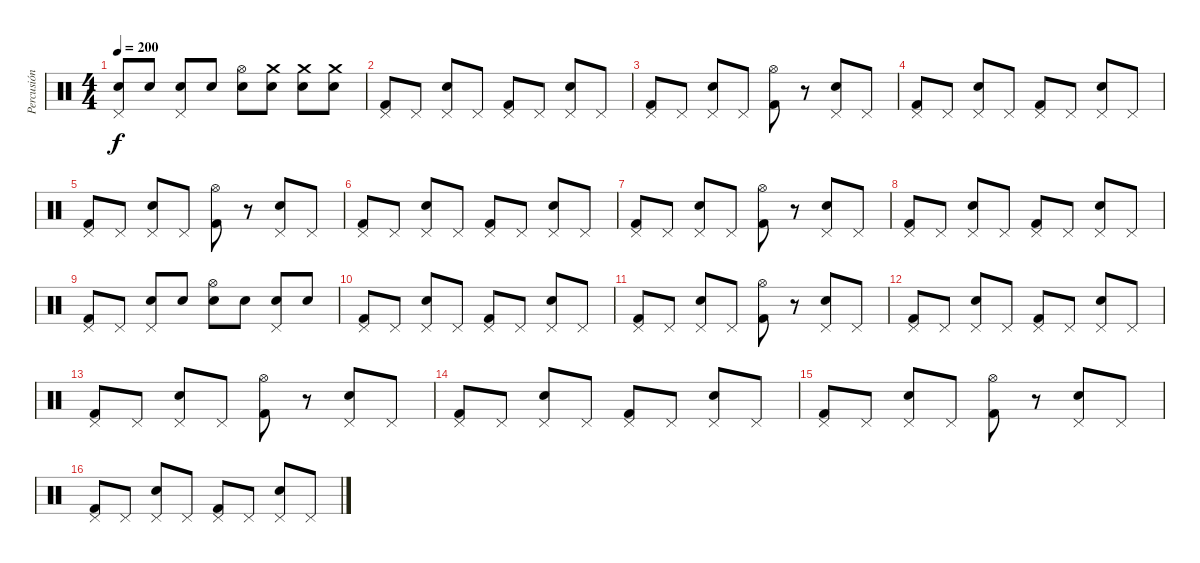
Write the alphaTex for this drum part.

\track ("Percusión" "Percusión") {instrument percussion}
\staff {score}
\articulation defaults
\ts (4 4)
\tempo 200
\clef neutral
\ks c
("Electric Snare (hit)" "Pedal Hi-Hat (hit)").8{dy f} "Electric Snare (hit)".8 ("Electric Snare (hit)" "Pedal Hi-Hat (hit)").8 "Electric Snare (hit)".8 ("Electric Snare (hit)" "Hi-Hat (open)").8 ("Electric Snare (hit)" "Crash medium (hit)").8 ("Electric Snare (hit)" "Crash medium (hit)").8 ("Electric Snare (hit)" "Crash medium (hit)").8 |
("Kick (hit) 2" "Pedal Hi-Hat (hit)").8 "Pedal Hi-Hat (hit)".8 ("Electric Snare (hit)" "Pedal Hi-Hat (hit)").8 "Pedal Hi-Hat (hit)".8 ("Kick (hit) 2" "Pedal Hi-Hat (hit)").8 "Pedal Hi-Hat (hit)".8 ("Electric Snare (hit)" "Pedal Hi-Hat (hit)").8 "Pedal Hi-Hat (hit)".8 |
("Kick (hit) 2" "Pedal Hi-Hat (hit)").8 "Pedal Hi-Hat (hit)".8 ("Electric Snare (hit)" "Pedal Hi-Hat (hit)").8 "Pedal Hi-Hat (hit)".8 ("Kick (hit) 2" "Hi-Hat (open)").8 r.8 ("Electric Snare (hit)" "Pedal Hi-Hat (hit)").8 "Pedal Hi-Hat (hit)".8 |
("Kick (hit) 2" "Pedal Hi-Hat (hit)").8 "Pedal Hi-Hat (hit)".8 ("Electric Snare (hit)" "Pedal Hi-Hat (hit)").8 "Pedal Hi-Hat (hit)".8 ("Kick (hit) 2" "Pedal Hi-Hat (hit)").8 "Pedal Hi-Hat (hit)".8 ("Electric Snare (hit)" "Pedal Hi-Hat (hit)").8 "Pedal Hi-Hat (hit)".8 |
("Kick (hit) 2" "Pedal Hi-Hat (hit)").8 "Pedal Hi-Hat (hit)".8 ("Electric Snare (hit)" "Pedal Hi-Hat (hit)").8 "Pedal Hi-Hat (hit)".8 ("Kick (hit) 2" "Hi-Hat (open)").8 r.8 ("Electric Snare (hit)" "Pedal Hi-Hat (hit)").8 "Pedal Hi-Hat (hit)".8 |
("Kick (hit) 2" "Pedal Hi-Hat (hit)").8 "Pedal Hi-Hat (hit)".8 ("Electric Snare (hit)" "Pedal Hi-Hat (hit)").8 "Pedal Hi-Hat (hit)".8 ("Kick (hit) 2" "Pedal Hi-Hat (hit)").8 "Pedal Hi-Hat (hit)".8 ("Electric Snare (hit)" "Pedal Hi-Hat (hit)").8 "Pedal Hi-Hat (hit)".8 |
("Kick (hit) 2" "Pedal Hi-Hat (hit)").8 "Pedal Hi-Hat (hit)".8 ("Electric Snare (hit)" "Pedal Hi-Hat (hit)").8 "Pedal Hi-Hat (hit)".8 ("Kick (hit) 2" "Hi-Hat (open)").8 r.8 ("Electric Snare (hit)" "Pedal Hi-Hat (hit)").8 "Pedal Hi-Hat (hit)".8 |
("Kick (hit) 2" "Pedal Hi-Hat (hit)").8 "Pedal Hi-Hat (hit)".8 ("Electric Snare (hit)" "Pedal Hi-Hat (hit)").8 "Pedal Hi-Hat (hit)".8 ("Kick (hit) 2" "Pedal Hi-Hat (hit)").8 "Pedal Hi-Hat (hit)".8 ("Electric Snare (hit)" "Pedal Hi-Hat (hit)").8 "Pedal Hi-Hat (hit)".8 |
("Kick (hit) 2" "Pedal Hi-Hat (hit)").8 "Pedal Hi-Hat (hit)".8 ("Electric Snare (hit)" "Pedal Hi-Hat (hit)").8 "Electric Snare (hit)".8 ("Electric Snare (hit)" "Hi-Hat (open)").8 "Electric Snare (hit)".8 ("Electric Snare (hit)" "Pedal Hi-Hat (hit)").8 "Electric Snare (hit)".8 |
("Kick (hit) 2" "Pedal Hi-Hat (hit)").8 "Pedal Hi-Hat (hit)".8 ("Electric Snare (hit)" "Pedal Hi-Hat (hit)").8 "Pedal Hi-Hat (hit)".8 ("Kick (hit) 2" "Pedal Hi-Hat (hit)").8 "Pedal Hi-Hat (hit)".8 ("Electric Snare (hit)" "Pedal Hi-Hat (hit)").8 "Pedal Hi-Hat (hit)".8 |
("Kick (hit) 2" "Pedal Hi-Hat (hit)").8 "Pedal Hi-Hat (hit)".8 ("Electric Snare (hit)" "Pedal Hi-Hat (hit)").8 "Pedal Hi-Hat (hit)".8 ("Kick (hit) 2" "Hi-Hat (open)").8 r.8 ("Electric Snare (hit)" "Pedal Hi-Hat (hit)").8 "Pedal Hi-Hat (hit)".8 |
("Kick (hit) 2" "Pedal Hi-Hat (hit)").8 "Pedal Hi-Hat (hit)".8 ("Electric Snare (hit)" "Pedal Hi-Hat (hit)").8 "Pedal Hi-Hat (hit)".8 ("Kick (hit) 2" "Pedal Hi-Hat (hit)").8 "Pedal Hi-Hat (hit)".8 ("Electric Snare (hit)" "Pedal Hi-Hat (hit)").8 "Pedal Hi-Hat (hit)".8 |
("Kick (hit) 2" "Pedal Hi-Hat (hit)").8 "Pedal Hi-Hat (hit)".8 ("Electric Snare (hit)" "Pedal Hi-Hat (hit)").8 "Pedal Hi-Hat (hit)".8 ("Kick (hit) 2" "Hi-Hat (open)").8 r.8 ("Electric Snare (hit)" "Pedal Hi-Hat (hit)").8 "Pedal Hi-Hat (hit)".8 |
("Kick (hit) 2" "Pedal Hi-Hat (hit)").8 "Pedal Hi-Hat (hit)".8 ("Electric Snare (hit)" "Pedal Hi-Hat (hit)").8 "Pedal Hi-Hat (hit)".8 ("Kick (hit) 2" "Pedal Hi-Hat (hit)").8 "Pedal Hi-Hat (hit)".8 ("Electric Snare (hit)" "Pedal Hi-Hat (hit)").8 "Pedal Hi-Hat (hit)".8 |
("Kick (hit) 2" "Pedal Hi-Hat (hit)").8 "Pedal Hi-Hat (hit)".8 ("Electric Snare (hit)" "Pedal Hi-Hat (hit)").8 "Pedal Hi-Hat (hit)".8 ("Kick (hit) 2" "Hi-Hat (open)").8 r.8 ("Electric Snare (hit)" "Pedal Hi-Hat (hit)").8 "Pedal Hi-Hat (hit)".8 |
("Kick (hit) 2" "Pedal Hi-Hat (hit)").8 "Pedal Hi-Hat (hit)".8 ("Electric Snare (hit)" "Pedal Hi-Hat (hit)").8 "Pedal Hi-Hat (hit)".8 ("Kick (hit) 2" "Pedal Hi-Hat (hit)").8 "Pedal Hi-Hat (hit)".8 ("Electric Snare (hit)" "Pedal Hi-Hat (hit)").8 "Pedal Hi-Hat (hit)".8
